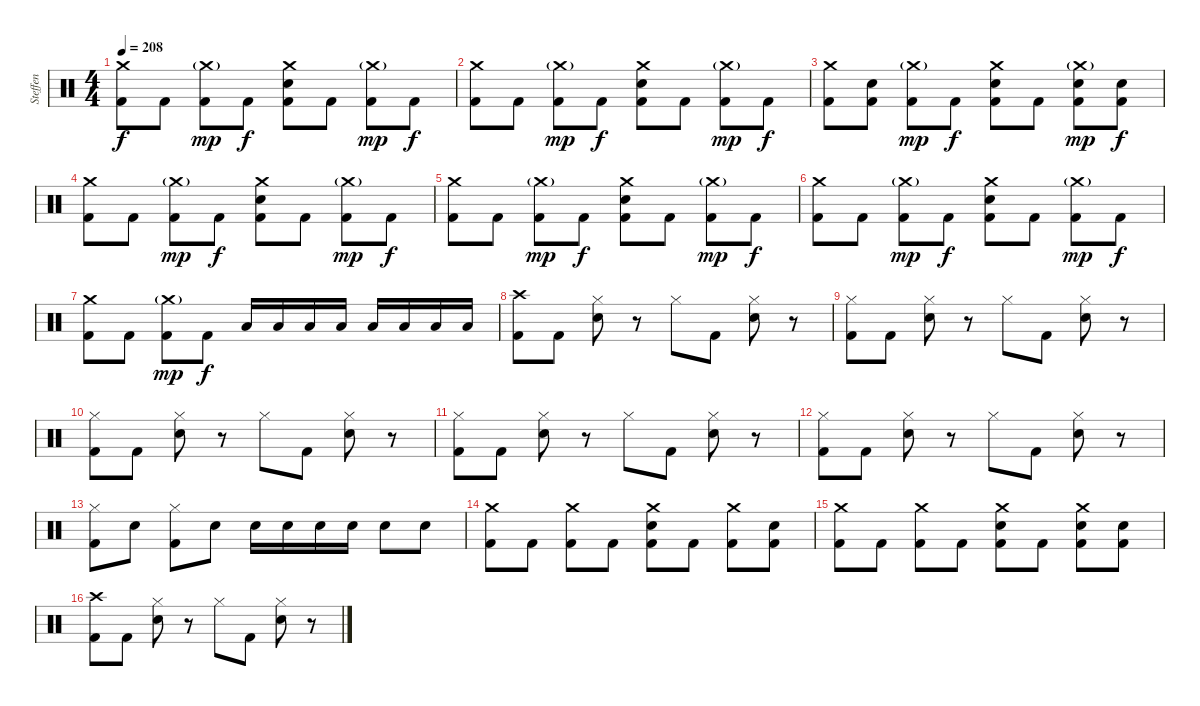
\track ("Steffen" "Steffen") {instrument percussion}
\staff {score}
\articulation defaults
\ts (4 4)
\tempo 208
\clef neutral
\ks c
("Crash medium (hit)" "Kick (hit) 2").8{dy f} "Kick (hit) 2".8 ("Crash medium (hit)"{g} "Kick (hit) 2").8{dy mp} "Kick (hit) 2".8{dy f} ("Crash medium (hit)" "Snare (hit) 2" "Kick (hit) 2").8 "Kick (hit) 2".8 ("Crash medium (hit)"{g} "Kick (hit) 2").8{dy mp} "Kick (hit) 2".8{dy f} |
("Crash medium (hit)" "Kick (hit) 2").8 "Kick (hit) 2".8 ("Crash medium (hit)"{g} "Kick (hit) 2").8{dy mp} "Kick (hit) 2".8{dy f} ("Crash medium (hit)" "Snare (hit) 2" "Kick (hit) 2").8 "Kick (hit) 2".8 ("Crash medium (hit)"{g} "Kick (hit) 2").8{dy mp} "Kick (hit) 2".8{dy f} |
("Crash medium (hit)" "Kick (hit) 2").8 ("Snare (hit) 2" "Kick (hit) 2").8 ("Crash medium (hit)"{g} "Kick (hit) 2").8{dy mp} "Kick (hit) 2".8{dy f} ("Crash medium (hit)" "Snare (hit) 2" "Kick (hit) 2").8 "Kick (hit) 2".8 ("Crash medium (hit)"{g} "Snare (hit) 2" "Kick (hit) 2").8{dy mp} ("Snare (hit) 2" "Kick (hit) 2").8{dy f} |
("Crash medium (hit)" "Kick (hit) 2").8 "Kick (hit) 2".8 ("Crash medium (hit)"{g} "Kick (hit) 2").8{dy mp} "Kick (hit) 2".8{dy f} ("Crash medium (hit)" "Snare (hit) 2" "Kick (hit) 2").8 "Kick (hit) 2".8 ("Crash medium (hit)"{g} "Kick (hit) 2").8{dy mp} "Kick (hit) 2".8{dy f} |
("Crash medium (hit)" "Kick (hit) 2").8 "Kick (hit) 2".8 ("Crash medium (hit)"{g} "Kick (hit) 2").8{dy mp} "Kick (hit) 2".8{dy f} ("Crash medium (hit)" "Snare (hit) 2" "Kick (hit) 2").8 "Kick (hit) 2".8 ("Crash medium (hit)"{g} "Kick (hit) 2").8{dy mp} "Kick (hit) 2".8{dy f} |
("Crash medium (hit)" "Kick (hit) 2").8 "Kick (hit) 2".8 ("Crash medium (hit)"{g} "Kick (hit) 2").8{dy mp} "Kick (hit) 2".8{dy f} ("Crash medium (hit)" "Snare (hit) 2" "Kick (hit) 2").8 "Kick (hit) 2".8 ("Crash medium (hit)"{g} "Kick (hit) 2").8{dy mp} "Kick (hit) 2".8{dy f} |
("Crash medium (hit)" "Kick (hit) 2").8 "Kick (hit) 2".8 ("Crash medium (hit)"{g} "Kick (hit) 2").8{dy mp} "Kick (hit) 2".8{dy f} "Low Tom (hit)".16 "Low Tom (hit)".16 "Low Tom (hit)".16 "Low Tom (hit)".16 "Low Floor Tom (hit)".16 "Low Floor Tom (hit)".16 "Low Floor Tom (hit)".16 "Low Floor Tom (hit)".16 |
("Crash high (hit)" "Kick (hit) 2").8 "Kick (hit) 2".8 ("Hi-Hat (closed)" "Snare (hit) 2").8 r.8 "Hi-Hat (closed)".8 "Kick (hit) 2".8 ("Hi-Hat (closed)" "Snare (hit) 2").8 r.8 |
("Hi-Hat (closed)" "Kick (hit) 2").8 "Kick (hit) 2".8 ("Hi-Hat (closed)" "Snare (hit) 2").8 r.8 "Hi-Hat (closed)".8 "Kick (hit) 2".8 ("Hi-Hat (closed)" "Snare (hit) 2").8 r.8 |
("Hi-Hat (closed)" "Kick (hit) 2").8 "Kick (hit) 2".8 ("Hi-Hat (closed)" "Snare (hit) 2").8 r.8 "Hi-Hat (closed)".8 "Kick (hit) 2".8 ("Hi-Hat (closed)" "Snare (hit) 2").8 r.8 |
("Hi-Hat (closed)" "Kick (hit) 2").8 "Kick (hit) 2".8 ("Hi-Hat (closed)" "Snare (hit) 2").8 r.8 "Hi-Hat (closed)".8 "Kick (hit) 2".8 ("Hi-Hat (closed)" "Snare (hit) 2").8 r.8 |
("Hi-Hat (closed)" "Kick (hit) 2").8 "Kick (hit) 2".8 ("Hi-Hat (closed)" "Snare (hit) 2").8 r.8 "Hi-Hat (closed)".8 "Kick (hit) 2".8 ("Hi-Hat (closed)" "Snare (hit) 2").8 r.8 |
("Hi-Hat (closed)" "Kick (hit) 2").8 "Snare (hit) 2".8 ("Hi-Hat (closed)" "Kick (hit) 2").8 "Snare (hit) 2".8 "Snare (hit) 2".16 "Snare (hit) 2".16 "Snare (hit) 2".16 "Snare (hit) 2".16 "Snare (hit) 2".8 "Snare (hit) 2".8 |
("Crash medium (hit)" "Kick (hit) 2").8 "Kick (hit) 2".8 ("Crash medium (hit)" "Kick (hit) 2").8 "Kick (hit) 2".8 ("Crash medium (hit)" "Snare (hit) 2" "Kick (hit) 2").8 "Kick (hit) 2".8 ("Crash medium (hit)" "Kick (hit) 2").8 ("Snare (hit) 2" "Kick (hit) 2").8 |
("Crash medium (hit)" "Kick (hit) 2").8 "Kick (hit) 2".8 ("Crash medium (hit)" "Kick (hit) 2").8 "Kick (hit) 2".8 ("Crash medium (hit)" "Snare (hit) 2" "Kick (hit) 2").8 "Kick (hit) 2".8 ("Crash medium (hit)" "Snare (hit) 2" "Kick (hit) 2").8 ("Snare (hit) 2" "Kick (hit) 2").8 |
("Crash high (hit)" "Kick (hit) 2").8 "Kick (hit) 2".8 ("Hi-Hat (closed)" "Snare (hit) 2").8 r.8 "Hi-Hat (closed)".8 "Kick (hit) 2".8 ("Hi-Hat (closed)" "Snare (hit) 2").8 r.8
